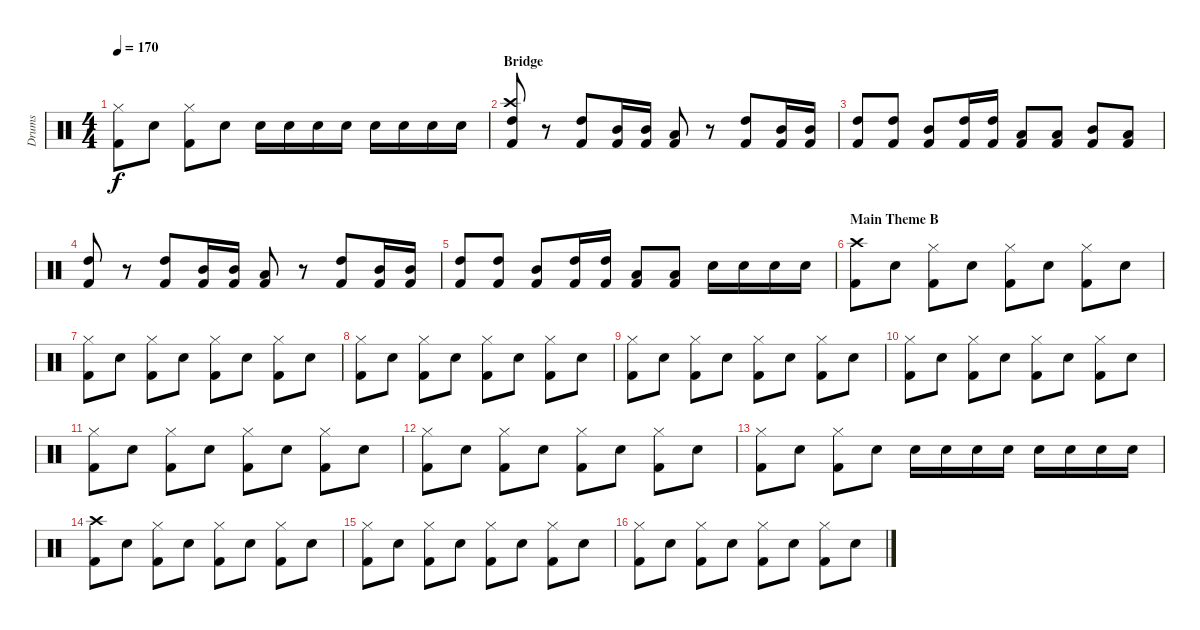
\track ("Drums" "Drums") {instrument percussion}
\staff {score}
\articulation defaults
\ts (4 4)
\tempo 170
\clef neutral
\ks c
("Hi-Hat (closed)" "Kick (hit) 2").8{dy f} "Electric Snare (hit)".8 ("Hi-Hat (closed)" "Kick (hit) 2").8 "Electric Snare (hit)".8 "Electric Snare (hit)".16 "Electric Snare (hit)".16 "Electric Snare (hit)".16 "Electric Snare (hit)".16 "Electric Snare (hit)".16 "Electric Snare (hit)".16 "Electric Snare (hit)".16 "Electric Snare (hit)".16 |
\section ("" "Bridge")
("Crash high (hit)" "High Tom (hit)" "Kick (hit) 2").8 r.8 ("High Tom (hit)" "Kick (hit) 2").8 ("Mid Tom (hit)" "Kick (hit) 2").16 ("Mid Tom (hit)" "Kick (hit) 2").16 ("Low Tom (hit)" "Kick (hit) 2").8 r.8 ("High Tom (hit)" "Kick (hit) 2").8 ("Mid Tom (hit)" "Kick (hit) 2").16 ("Mid Tom (hit)" "Kick (hit) 2").16 |
("High Tom (hit)" "Kick (hit) 2").8 ("High Tom (hit)" "Kick (hit) 2").8 ("Mid Tom (hit)" "Kick (hit) 2").8 ("High Tom (hit)" "Kick (hit) 2").16 ("High Tom (hit)" "Kick (hit) 2").16 ("Low Tom (hit)" "Kick (hit) 2").8 ("Low Tom (hit)" "Kick (hit) 2").8 ("Mid Tom (hit)" "Kick (hit) 2").8 ("Low Tom (hit)" "Kick (hit) 2").8 |
("High Tom (hit)" "Kick (hit) 2").8 r.8 ("High Tom (hit)" "Kick (hit) 2").8 ("Mid Tom (hit)" "Kick (hit) 2").16 ("Mid Tom (hit)" "Kick (hit) 2").16 ("Low Tom (hit)" "Kick (hit) 2").8 r.8 ("High Tom (hit)" "Kick (hit) 2").8 ("Mid Tom (hit)" "Kick (hit) 2").16 ("Mid Tom (hit)" "Kick (hit) 2").16 |
("High Tom (hit)" "Kick (hit) 2").8 ("High Tom (hit)" "Kick (hit) 2").8 ("Mid Tom (hit)" "Kick (hit) 2").8 ("High Tom (hit)" "Kick (hit) 2").16 ("High Tom (hit)" "Kick (hit) 2").16 ("Low Tom (hit)" "Kick (hit) 2").8 ("Low Tom (hit)" "Kick (hit) 2").8 "Electric Snare (hit)".16 "Electric Snare (hit)".16 "Electric Snare (hit)".16 "Electric Snare (hit)".16 |
\section ("" "Main Theme B")
("Crash high (hit)" "Kick (hit) 2").8 "Electric Snare (hit)".8 ("Hi-Hat (closed)" "Kick (hit) 2").8 "Electric Snare (hit)".8 ("Hi-Hat (closed)" "Kick (hit) 2").8 "Electric Snare (hit)".8 ("Hi-Hat (closed)" "Kick (hit) 2").8 "Electric Snare (hit)".8 |
("Hi-Hat (closed)" "Kick (hit) 2").8 "Electric Snare (hit)".8 ("Hi-Hat (closed)" "Kick (hit) 2").8 "Electric Snare (hit)".8 ("Hi-Hat (closed)" "Kick (hit) 2").8 "Electric Snare (hit)".8 ("Hi-Hat (closed)" "Kick (hit) 2").8 "Electric Snare (hit)".8 |
("Hi-Hat (closed)" "Kick (hit) 2").8 "Electric Snare (hit)".8 ("Hi-Hat (closed)" "Kick (hit) 2").8 "Electric Snare (hit)".8 ("Hi-Hat (closed)" "Kick (hit) 2").8 "Electric Snare (hit)".8 ("Hi-Hat (closed)" "Kick (hit) 2").8 "Electric Snare (hit)".8 |
("Hi-Hat (closed)" "Kick (hit) 2").8 "Electric Snare (hit)".8 ("Hi-Hat (closed)" "Kick (hit) 2").8 "Electric Snare (hit)".8 ("Hi-Hat (closed)" "Kick (hit) 2").8 "Electric Snare (hit)".8 ("Hi-Hat (closed)" "Kick (hit) 2").8 "Electric Snare (hit)".8 |
("Hi-Hat (closed)" "Kick (hit) 2").8 "Electric Snare (hit)".8 ("Hi-Hat (closed)" "Kick (hit) 2").8 "Electric Snare (hit)".8 ("Hi-Hat (closed)" "Kick (hit) 2").8 "Electric Snare (hit)".8 ("Hi-Hat (closed)" "Kick (hit) 2").8 "Electric Snare (hit)".8 |
("Hi-Hat (closed)" "Kick (hit) 2").8 "Electric Snare (hit)".8 ("Hi-Hat (closed)" "Kick (hit) 2").8 "Electric Snare (hit)".8 ("Hi-Hat (closed)" "Kick (hit) 2").8 "Electric Snare (hit)".8 ("Hi-Hat (closed)" "Kick (hit) 2").8 "Electric Snare (hit)".8 |
("Hi-Hat (closed)" "Kick (hit) 2").8 "Electric Snare (hit)".8 ("Hi-Hat (closed)" "Kick (hit) 2").8 "Electric Snare (hit)".8 ("Hi-Hat (closed)" "Kick (hit) 2").8 "Electric Snare (hit)".8 ("Hi-Hat (closed)" "Kick (hit) 2").8 "Electric Snare (hit)".8 |
("Hi-Hat (closed)" "Kick (hit) 2").8 "Electric Snare (hit)".8 ("Hi-Hat (closed)" "Kick (hit) 2").8 "Electric Snare (hit)".8 "Electric Snare (hit)".16 "Electric Snare (hit)".16 "Electric Snare (hit)".16 "Electric Snare (hit)".16 "Electric Snare (hit)".16 "Electric Snare (hit)".16 "Electric Snare (hit)".16 "Electric Snare (hit)".16 |
("Crash high (hit)" "Kick (hit) 2").8 "Electric Snare (hit)".8 ("Hi-Hat (closed)" "Kick (hit) 2").8 "Electric Snare (hit)".8 ("Hi-Hat (closed)" "Kick (hit) 2").8 "Electric Snare (hit)".8 ("Hi-Hat (closed)" "Kick (hit) 2").8 "Electric Snare (hit)".8 |
("Hi-Hat (closed)" "Kick (hit) 2").8 "Electric Snare (hit)".8 ("Hi-Hat (closed)" "Kick (hit) 2").8 "Electric Snare (hit)".8 ("Hi-Hat (closed)" "Kick (hit) 2").8 "Electric Snare (hit)".8 ("Hi-Hat (closed)" "Kick (hit) 2").8 "Electric Snare (hit)".8 |
("Hi-Hat (closed)" "Kick (hit) 2").8 "Electric Snare (hit)".8 ("Hi-Hat (closed)" "Kick (hit) 2").8 "Electric Snare (hit)".8 ("Hi-Hat (closed)" "Kick (hit) 2").8 "Electric Snare (hit)".8 ("Hi-Hat (closed)" "Kick (hit) 2").8 "Electric Snare (hit)".8
